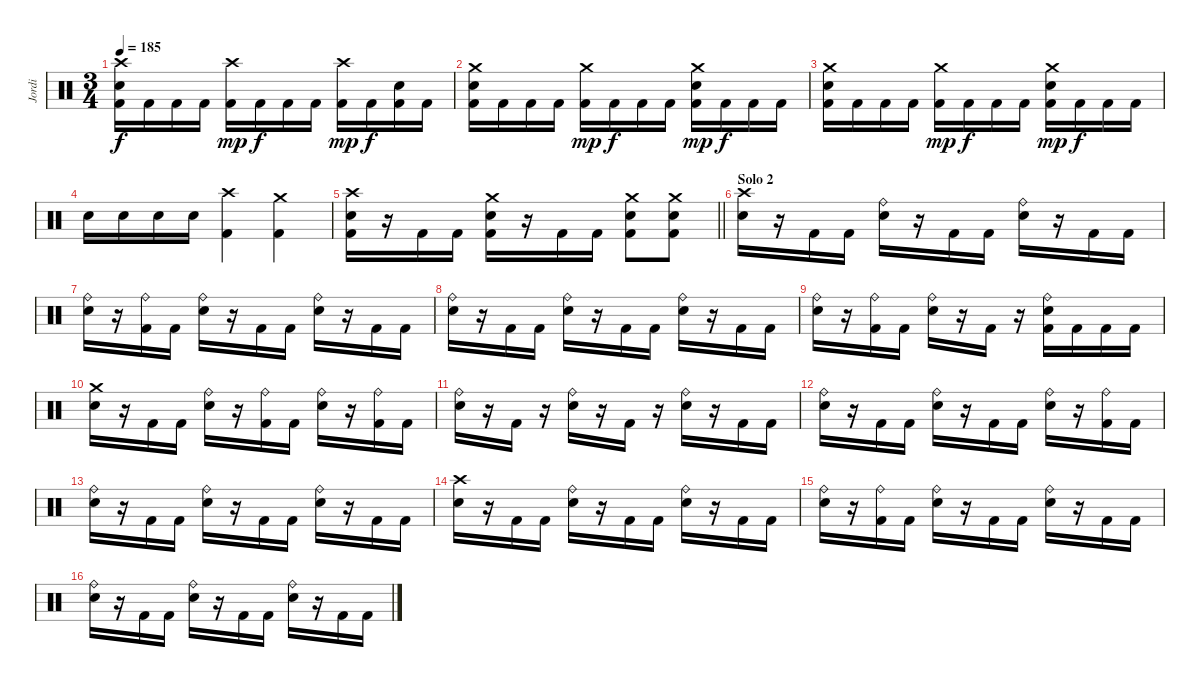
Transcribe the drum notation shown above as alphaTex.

\track ("Jordi" "Jordi") {instrument percussion}
\staff {score}
\articulation defaults
\ts (3 4)
\tempo 185
\clef neutral
\ks c
("Crash high (hit)" "Snare (hit) 2" "Kick (hit) 2").16{dy f} "Kick (hit) 2".16 "Kick (hit) 2".16 "Kick (hit) 2".16 ("Crash high (hit)" "Kick (hit) 2").16{dy mp} "Kick (hit) 2".16{dy f} "Kick (hit) 2".16 "Kick (hit) 2".16 ("Crash high (hit)" "Kick (hit) 2").16{dy mp} "Kick (hit) 2".16{dy f} ("Snare (hit) 2" "Kick (hit) 2").16 "Kick (hit) 2".16 |
("Crash medium (hit)" "Snare (hit) 2" "Kick (hit) 2").16 "Kick (hit) 2".16 "Kick (hit) 2".16 "Kick (hit) 2".16 ("Crash medium (hit)" "Kick (hit) 2").16{dy mp} "Kick (hit) 2".16{dy f} "Kick (hit) 2".16 "Kick (hit) 2".16 ("Crash medium (hit)" "Snare (hit) 2" "Kick (hit) 2").16{dy mp} "Kick (hit) 2".16{dy f} "Kick (hit) 2".16 "Kick (hit) 2".16 |
("Crash medium (hit)" "Snare (hit) 2" "Kick (hit) 2").16 "Kick (hit) 2".16 "Kick (hit) 2".16 "Kick (hit) 2".16 ("Crash medium (hit)" "Kick (hit) 2").16{dy mp} "Kick (hit) 2".16{dy f} "Kick (hit) 2".16 "Kick (hit) 2".16 ("Crash medium (hit)" "Snare (hit) 2" "Kick (hit) 2").16{dy mp} "Kick (hit) 2".16{dy f} "Kick (hit) 2".16 "Kick (hit) 2".16 |
"Snare (hit) 2".16 "Snare (hit) 2".16 "Snare (hit) 2".16 "Snare (hit) 2".16 ("Crash high (hit)" "Kick (hit) 2").4 ("Crash medium (hit)" "Kick (hit) 2").4 |
\barLineRight lightlight
("Crash high (hit)" "Snare (hit) 2" "Kick (hit) 2").16 r.16 "Kick (hit) 2".16 "Kick (hit) 2".16 ("Crash medium (hit)" "Snare (hit) 2" "Kick (hit) 2").16 r.16 "Kick (hit) 2".16 "Kick (hit) 2".16 ("Crash medium (hit)" "Snare (hit) 2" "Kick (hit) 2").8 ("Crash medium (hit)" "Snare (hit) 2" "Kick (hit) 2").8 |
\section ("" "Solo 2")
("Crash high (hit)" "Snare (hit) 2").16 r.16 "Kick (hit) 2".16 "Kick (hit) 2".16 ("Ride (bell)" "Snare (hit) 2").16 r.16 "Kick (hit) 2".16 "Kick (hit) 2".16 ("Ride (bell)" "Snare (hit) 2").16 r.16 "Kick (hit) 2".16 "Kick (hit) 2".16 |
("Ride (bell)" "Snare (hit) 2").16 r.16 ("Ride (bell)" "Kick (hit) 2").16 "Kick (hit) 2".16 ("Ride (bell)" "Snare (hit) 2").16 r.16 "Kick (hit) 2".16 "Kick (hit) 2".16 ("Ride (bell)" "Snare (hit) 2").16 r.16 "Kick (hit) 2".16 "Kick (hit) 2".16 |
("Ride (bell)" "Snare (hit) 2").16 r.16 "Kick (hit) 2".16 "Kick (hit) 2".16 ("Ride (bell)" "Snare (hit) 2").16 r.16 "Kick (hit) 2".16 "Kick (hit) 2".16 ("Ride (bell)" "Snare (hit) 2").16 r.16 "Kick (hit) 2".16 "Kick (hit) 2".16 |
("Ride (bell)" "Snare (hit) 2").16 r.16 ("Ride (bell)" "Kick (hit) 2").16 "Kick (hit) 2".16 ("Ride (bell)" "Snare (hit) 2").16 r.16 "Kick (hit) 2".16 r.16 ("Ride (bell)" "Snare (hit) 2" "Kick (hit) 2").16 "Kick (hit) 2".16 "Kick (hit) 2".16 "Kick (hit) 2".16 |
("Crash medium (hit)" "Snare (hit) 2").16 r.16 "Kick (hit) 2".16 "Kick (hit) 2".16 ("Ride (bell)" "Snare (hit) 2").16 r.16 ("Ride (bell)" "Kick (hit) 2").16 "Kick (hit) 2".16 ("Ride (bell)" "Snare (hit) 2").16 r.16 ("Ride (bell)" "Kick (hit) 2").16 "Kick (hit) 2".16 |
("Ride (bell)" "Snare (hit) 2").16 r.16 "Kick (hit) 2".16 r.16 ("Ride (bell)" "Snare (hit) 2").16 r.16 "Kick (hit) 2".16 r.16 ("Ride (bell)" "Snare (hit) 2").16 r.16 "Kick (hit) 2".16 "Kick (hit) 2".16 |
("Ride (bell)" "Snare (hit) 2").16 r.16 "Kick (hit) 2".16 "Kick (hit) 2".16 ("Ride (bell)" "Snare (hit) 2").16 r.16 "Kick (hit) 2".16 "Kick (hit) 2".16 ("Ride (bell)" "Snare (hit) 2").16 r.16 ("Ride (bell)" "Kick (hit) 2").16 "Kick (hit) 2".16 |
("Ride (bell)" "Snare (hit) 2").16 r.16 "Kick (hit) 2".16 "Kick (hit) 2".16 ("Ride (bell)" "Snare (hit) 2").16 r.16 "Kick (hit) 2".16 "Kick (hit) 2".16 ("Ride (bell)" "Snare (hit) 2").16 r.16 "Kick (hit) 2".16 "Kick (hit) 2".16 |
("Crash high (hit)" "Snare (hit) 2").16 r.16 "Kick (hit) 2".16 "Kick (hit) 2".16 ("Ride (bell)" "Snare (hit) 2").16 r.16 "Kick (hit) 2".16 "Kick (hit) 2".16 ("Ride (bell)" "Snare (hit) 2").16 r.16 "Kick (hit) 2".16 "Kick (hit) 2".16 |
("Ride (bell)" "Snare (hit) 2").16 r.16 ("Ride (bell)" "Kick (hit) 2").16 "Kick (hit) 2".16 ("Ride (bell)" "Snare (hit) 2").16 r.16 "Kick (hit) 2".16 "Kick (hit) 2".16 ("Ride (bell)" "Snare (hit) 2").16 r.16 "Kick (hit) 2".16 "Kick (hit) 2".16 |
("Ride (bell)" "Snare (hit) 2").16 r.16 "Kick (hit) 2".16 "Kick (hit) 2".16 ("Ride (bell)" "Snare (hit) 2").16 r.16 "Kick (hit) 2".16 "Kick (hit) 2".16 ("Ride (bell)" "Snare (hit) 2").16 r.16 "Kick (hit) 2".16 "Kick (hit) 2".16
